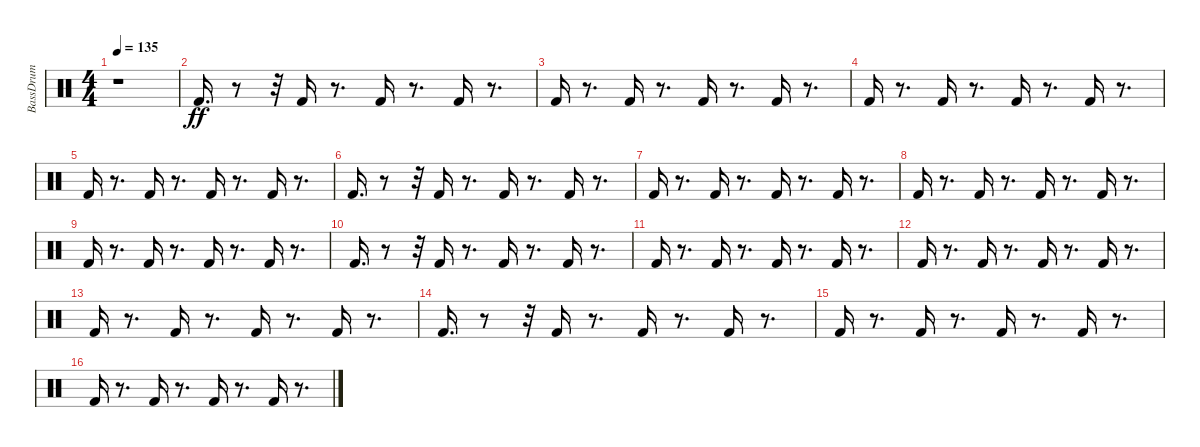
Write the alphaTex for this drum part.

\track ("BassDrum" "BassDrum") {instrument percussion}
\staff {score}
\articulation defaults
\ts (4 4)
\tempo 135
\clef neutral
\ks c
r.1{dy ff} |
"Kick (hit) 2".16{d} r.8 r.32 "Kick (hit) 2".16 r.8{d} "Kick (hit) 2".16 r.8{d} "Kick (hit) 2".16 r.8{d} |
"Kick (hit) 2".16 r.8{d} "Kick (hit) 2".16 r.8{d} "Kick (hit) 2".16 r.8{d} "Kick (hit) 2".16 r.8{d} |
"Kick (hit) 2".16 r.8{d} "Kick (hit) 2".16 r.8{d} "Kick (hit) 2".16 r.8{d} "Kick (hit) 2".16 r.8{d} |
"Kick (hit) 2".16 r.8{d} "Kick (hit) 2".16 r.8{d} "Kick (hit) 2".16 r.8{d} "Kick (hit) 2".16 r.8{d} |
"Kick (hit) 2".16{d} r.8 r.32 "Kick (hit) 2".16 r.8{d} "Kick (hit) 2".16 r.8{d} "Kick (hit) 2".16 r.8{d} |
"Kick (hit) 2".16 r.8{d} "Kick (hit) 2".16 r.8{d} "Kick (hit) 2".16 r.8{d} "Kick (hit) 2".16 r.8{d} |
"Kick (hit) 2".16 r.8{d} "Kick (hit) 2".16 r.8{d} "Kick (hit) 2".16 r.8{d} "Kick (hit) 2".16 r.8{d} |
"Kick (hit) 2".16 r.8{d} "Kick (hit) 2".16 r.8{d} "Kick (hit) 2".16 r.8{d} "Kick (hit) 2".16 r.8{d} |
"Kick (hit) 2".16{d} r.8 r.32 "Kick (hit) 2".16 r.8{d} "Kick (hit) 2".16 r.8{d} "Kick (hit) 2".16 r.8{d} |
"Kick (hit) 2".16 r.8{d} "Kick (hit) 2".16 r.8{d} "Kick (hit) 2".16 r.8{d} "Kick (hit) 2".16 r.8{d} |
"Kick (hit) 2".16 r.8{d} "Kick (hit) 2".16 r.8{d} "Kick (hit) 2".16 r.8{d} "Kick (hit) 2".16 r.8{d} |
"Kick (hit) 2".16 r.8{d} "Kick (hit) 2".16 r.8{d} "Kick (hit) 2".16 r.8{d} "Kick (hit) 2".16 r.8{d} |
"Kick (hit) 2".16{d} r.8 r.32 "Kick (hit) 2".16 r.8{d} "Kick (hit) 2".16 r.8{d} "Kick (hit) 2".16 r.8{d} |
"Kick (hit) 2".16 r.8{d} "Kick (hit) 2".16 r.8{d} "Kick (hit) 2".16 r.8{d} "Kick (hit) 2".16 r.8{d} |
"Kick (hit) 2".16 r.8{d} "Kick (hit) 2".16 r.8{d} "Kick (hit) 2".16 r.8{d} "Kick (hit) 2".16 r.8{d}
